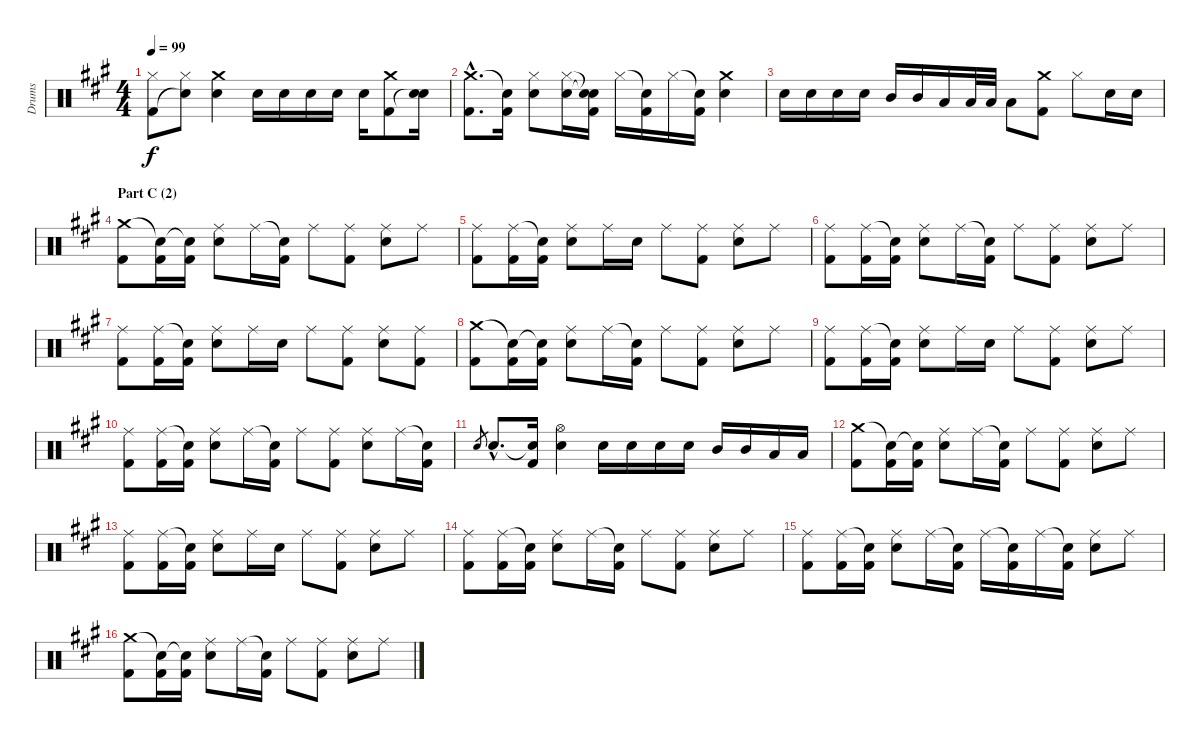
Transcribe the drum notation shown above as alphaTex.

\track ("Drums" "Drums") {instrument percussion}
\staff {score}
\articulation defaults
\ts (4 4)
\tempo 99
\clef neutral
\ks a
("Hi-Hat (closed)" "Kick (hit) 2").8{dy f} ("Hi-Hat (closed)" "Snare (hit)"{t}).8 ("Crash medium (hit)" "Electric Snare (hit)").4 "Electric Snare (hit)".16 "Electric Snare (hit)".16 "Electric Snare (hit)".16 "Electric Snare (hit)".16 "Electric Snare (hit)".16 ("Crash medium (hit)" "Kick (hit) 2").8 ("Electric Snare (hit)" "Snare (hit)"{t}).16 |
("Crash medium (hit)"{hac} "Kick (hit) 2"{hac}).8{d} ("Snare (hit)"{t} "Kick (hit) 2").16 ("Hi-Hat (closed)" "Electric Snare (hit)").8 ("Hi-Hat (closed)" "Electric Snare (hit)").16 ("Snare (hit)"{t} "Snare (hit)"{t} "Kick (hit) 2").16 "Hi-Hat (closed)".16 ("Snare (hit)"{t} "Kick (hit) 2").16 "Hi-Hat (closed)".16 ("Snare (hit)"{t} "Kick (hit) 2").16 ("Crash medium (hit)" "Electric Snare (hit)").4 |
"Electric Snare (hit)".16 "Electric Snare (hit)".16 "Electric Snare (hit)".16 "Electric Snare (hit)".16 "Mid Tom (hit)".16 "Mid Tom (hit)".16 "Low Tom (hit)".16 "Low Tom (hit)".32 "Low Floor Tom (hit)".32 "Low Floor Tom (hit)".8 ("Crash medium (hit)" "Kick (hit) 2").8 "Hi-Hat (closed)".8 "Electric Snare (hit)".16 "Electric Snare (hit)".16 |
\section ("" "Part C (2)")
("Crash medium (hit)" "Kick (hit) 2").8 ("Snare (hit)"{t} "Kick (hit) 2").16 ("Snare (hit)"{t} "Kick (hit) 2").16 ("Ride (middle)" "Electric Snare (hit)").8 "Ride (middle)".16 ("Snare (hit)"{t} "Kick (hit) 2").16 "Ride (middle)".8 ("Ride (middle)" "Kick (hit) 2").8 ("Ride (middle)" "Electric Snare (hit)").8 "Ride (middle)".8 |
("Ride (middle)" "Kick (hit) 2").8 ("Ride (middle)" "Kick (hit) 2").16 ("Snare (hit)"{t} "Kick (hit) 2").16 ("Ride (middle)" "Electric Snare (hit)").8 "Ride (middle)".16 "Electric Snare (hit)".16 "Ride (middle)".8 ("Ride (middle)" "Kick (hit) 2").8 ("Ride (middle)" "Electric Snare (hit)").8 "Ride (middle)".8 |
("Ride (middle)" "Kick (hit) 2").8 ("Ride (middle)" "Kick (hit) 2").16 ("Snare (hit)"{t} "Kick (hit) 2").16 ("Ride (middle)" "Electric Snare (hit)").8 "Ride (middle)".16 ("Snare (hit)"{t} "Kick (hit) 2").16 "Ride (middle)".8 ("Ride (middle)" "Kick (hit) 2").8 ("Ride (middle)" "Electric Snare (hit)").8 "Ride (middle)".8 |
("Ride (middle)" "Kick (hit) 2").8 ("Ride (middle)" "Kick (hit) 2").16 ("Snare (hit)"{t} "Kick (hit) 2").16 ("Ride (middle)" "Electric Snare (hit)").8 "Ride (middle)".16 "Electric Snare (hit)".16 "Ride (middle)".8 ("Ride (middle)" "Kick (hit) 2").8 ("Ride (middle)" "Electric Snare (hit)").8 ("Ride (middle)" "Kick (hit) 2").8 |
("Crash medium (hit)" "Kick (hit) 2").8 ("Snare (hit)"{t} "Kick (hit) 2").16 ("Snare (hit)"{t} "Kick (hit) 2").16 ("Ride (middle)" "Electric Snare (hit)").8 "Ride (middle)".16 ("Snare (hit)"{t} "Kick (hit) 2").16 "Ride (middle)".8 ("Ride (middle)" "Kick (hit) 2").8 ("Ride (middle)" "Electric Snare (hit)").8 "Ride (middle)".8 |
("Ride (middle)" "Kick (hit) 2").8 ("Ride (middle)" "Kick (hit) 2").16 ("Snare (hit)"{t} "Kick (hit) 2").16 ("Ride (middle)" "Electric Snare (hit)").8 "Ride (middle)".16 "Electric Snare (hit)".16 "Ride (middle)".8 ("Ride (middle)" "Kick (hit) 2").8 ("Ride (middle)" "Electric Snare (hit)").8 "Ride (middle)".8 |
("Ride (middle)" "Kick (hit) 2").8 ("Ride (middle)" "Kick (hit) 2").16 ("Snare (hit)"{t} "Kick (hit) 2").16 ("Ride (middle)" "Electric Snare (hit)").8 "Ride (middle)".16 ("Snare (hit)"{t} "Kick (hit) 2").16 "Ride (middle)".8 ("Ride (middle)" "Kick (hit) 2").8 ("Ride (middle)" "Electric Snare (hit)").8 "Ride (middle)".16 ("Snare (hit)"{t} "Kick (hit) 2").16 |
"Electric Snare (hit)".8{gr} "Electric Snare (hit)"{hac}.8{d} ("Snare (hit)"{t} "Kick (hit) 2").16 ("Hi-Hat (open)" "Electric Snare (hit)").4 "Electric Snare (hit)".16 "Electric Snare (hit)".16 "Electric Snare (hit)".16 "Electric Snare (hit)".16 "Mid Tom (hit)".16 "Mid Tom (hit)".16 "Low Tom (hit)".16 "Low Floor Tom (hit)".16 |
("Crash medium (hit)" "Kick (hit) 2").8 ("Snare (hit)"{t} "Kick (hit) 2").16 ("Snare (hit)"{t} "Kick (hit) 2").16 ("Ride (middle)" "Electric Snare (hit)").8 "Ride (middle)".16 ("Snare (hit)"{t} "Kick (hit) 2").16 "Ride (middle)".8 ("Ride (middle)" "Kick (hit) 2").8 ("Ride (middle)" "Electric Snare (hit)").8 "Ride (middle)".8 |
("Ride (middle)" "Kick (hit) 2").8 ("Ride (middle)" "Kick (hit) 2").16 ("Snare (hit)"{t} "Kick (hit) 2").16 ("Ride (middle)" "Electric Snare (hit)").8 "Ride (middle)".16 "Electric Snare (hit)".16 "Ride (middle)".8 ("Ride (middle)" "Kick (hit) 2").8 ("Ride (middle)" "Electric Snare (hit)").8 "Ride (middle)".8 |
("Ride (middle)" "Kick (hit) 2").8 ("Ride (middle)" "Kick (hit) 2").16 ("Snare (hit)"{t} "Kick (hit) 2").16 ("Ride (middle)" "Electric Snare (hit)").8 "Ride (middle)".16 ("Snare (hit)"{t} "Kick (hit) 2").16 "Ride (middle)".8 ("Ride (middle)" "Kick (hit) 2").8 ("Ride (middle)" "Electric Snare (hit)").8 "Ride (middle)".8 |
("Ride (middle)" "Kick (hit) 2").8 ("Ride (middle)" "Kick (hit) 2").16 ("Snare (hit)"{t} "Kick (hit) 2").16 ("Ride (middle)" "Electric Snare (hit)").8 "Ride (middle)".16 ("Snare (hit)"{t} "Kick (hit) 2").16 "Ride (middle)".16 ("Snare (hit)"{t} "Kick (hit) 2").16 "Ride (middle)".16 ("Snare (hit)"{t} "Kick (hit) 2").16 ("Ride (middle)" "Electric Snare (hit)").8 "Ride (middle)".8 |
("Crash medium (hit)" "Kick (hit) 2").8 ("Snare (hit)"{t} "Kick (hit) 2").16 ("Snare (hit)"{t} "Kick (hit) 2").16 ("Ride (middle)" "Electric Snare (hit)").8 "Ride (middle)".16 ("Snare (hit)"{t} "Kick (hit) 2").16 "Ride (middle)".8 ("Ride (middle)" "Kick (hit) 2").8 ("Ride (middle)" "Electric Snare (hit)").8 "Ride (middle)".8
